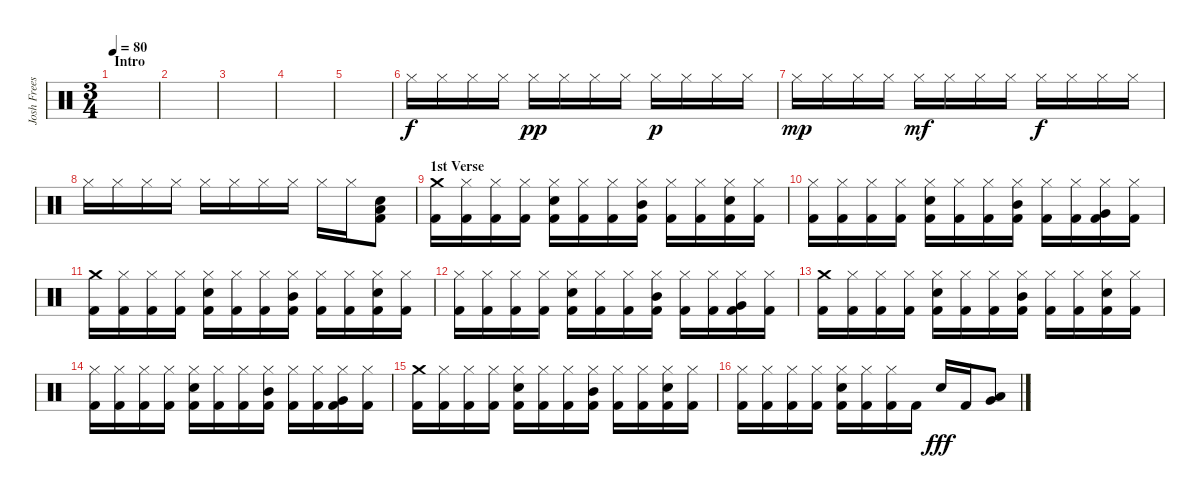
\track ("Josh Freese" "Josh Frees") {instrument percussion}
\staff {score}
\articulation defaults
\ts (3 4)
\section ("" "Intro")
\tempo 80
\clef neutral
\ks c
|
|
|
|
|
"Hi-Hat (closed)".16 "Hi-Hat (closed)".16 "Hi-Hat (closed)".16 "Hi-Hat (closed)".16 "Hi-Hat (closed)".16{dy pp} "Hi-Hat (closed)".16 "Hi-Hat (closed)".16 "Hi-Hat (closed)".16 "Hi-Hat (closed)".16{dy p} "Hi-Hat (closed)".16 "Hi-Hat (closed)".16 "Hi-Hat (closed)".16 |
"Hi-Hat (closed)".16{dy mp} "Hi-Hat (closed)".16 "Hi-Hat (closed)".16 "Hi-Hat (closed)".16 "Hi-Hat (closed)".16{dy mf} "Hi-Hat (closed)".16 "Hi-Hat (closed)".16 "Hi-Hat (closed)".16 "Hi-Hat (closed)".16{dy f} "Hi-Hat (closed)".16 "Hi-Hat (closed)".16 "Hi-Hat (closed)".16 |
"Hi-Hat (closed)".16 "Hi-Hat (closed)".16 "Hi-Hat (closed)".16 "Hi-Hat (closed)".16 "Hi-Hat (closed)".16 "Hi-Hat (closed)".16 "Hi-Hat (closed)".16 "Hi-Hat (closed)".16 "Hi-Hat (closed)".16 "Hi-Hat (closed)".16 ("Electric Snare (hit)" "Low Floor Tom (hit)" "Kick (hit) 2").8 |
\section ("" "1st Verse")
("Crash medium (hit)" "Kick (hit) 2").16 ("Hi-Hat (closed)" "Kick (hit) 2").16 ("Hi-Hat (closed)" "Kick (hit) 2").16 ("Hi-Hat (closed)" "Kick (hit) 2").16 ("Hi-Hat (closed)" "Electric Snare (hit)" "Kick (hit) 2").16 ("Hi-Hat (closed)" "Kick (hit) 2").16 ("Hi-Hat (closed)" "Kick (hit) 2").16 ("Hi-Hat (closed)" "Mid Tom (hit)" "Kick (hit) 2").16 ("Hi-Hat (closed)" "Kick (hit) 2").16 ("Hi-Hat (closed)" "Kick (hit) 2").16 ("Hi-Hat (closed)" "Electric Snare (hit)" "Kick (hit) 2").16 ("Hi-Hat (closed)" "Kick (hit) 2").16 |
("Hi-Hat (closed)" "Kick (hit) 2").16 ("Hi-Hat (closed)" "Kick (hit) 2").16 ("Hi-Hat (closed)" "Kick (hit) 2").16 ("Hi-Hat (closed)" "Kick (hit) 2").16 ("Hi-Hat (closed)" "Electric Snare (hit)" "Kick (hit) 2").16 ("Hi-Hat (closed)" "Kick (hit) 2").16 ("Hi-Hat (closed)" "Kick (hit) 2").16 ("Hi-Hat (closed)" "Mid Tom (hit)" "Kick (hit) 2").16 ("Hi-Hat (closed)" "Kick (hit) 2").16 ("Hi-Hat (closed)" "Kick (hit) 2").16 ("Hi-Hat (closed)" "Very Low Tom (hit)" "Kick (hit) 2").16 ("Hi-Hat (closed)" "Kick (hit) 2").16 |
("Crash medium (hit)" "Kick (hit) 2").16 ("Hi-Hat (closed)" "Kick (hit) 2").16 ("Hi-Hat (closed)" "Kick (hit) 2").16 ("Hi-Hat (closed)" "Kick (hit) 2").16 ("Hi-Hat (closed)" "Electric Snare (hit)" "Kick (hit) 2").16 ("Hi-Hat (closed)" "Kick (hit) 2").16 ("Hi-Hat (closed)" "Kick (hit) 2").16 ("Hi-Hat (closed)" "Mid Tom (hit)" "Kick (hit) 2").16 ("Hi-Hat (closed)" "Kick (hit) 2").16 ("Hi-Hat (closed)" "Kick (hit) 2").16 ("Hi-Hat (closed)" "Electric Snare (hit)" "Kick (hit) 2").16 ("Hi-Hat (closed)" "Kick (hit) 2").16 |
("Hi-Hat (closed)" "Kick (hit) 2").16 ("Hi-Hat (closed)" "Kick (hit) 2").16 ("Hi-Hat (closed)" "Kick (hit) 2").16 ("Hi-Hat (closed)" "Kick (hit) 2").16 ("Hi-Hat (closed)" "Electric Snare (hit)" "Kick (hit) 2").16 ("Hi-Hat (closed)" "Kick (hit) 2").16 ("Hi-Hat (closed)" "Kick (hit) 2").16 ("Hi-Hat (closed)" "Mid Tom (hit)" "Kick (hit) 2").16 ("Hi-Hat (closed)" "Kick (hit) 2").16 ("Hi-Hat (closed)" "Kick (hit) 2").16 ("Hi-Hat (closed)" "Very Low Tom (hit)" "Kick (hit) 2").16 ("Hi-Hat (closed)" "Kick (hit) 2").16 |
("Crash medium (hit)" "Kick (hit) 2").16 ("Hi-Hat (closed)" "Kick (hit) 2").16 ("Hi-Hat (closed)" "Kick (hit) 2").16 ("Hi-Hat (closed)" "Kick (hit) 2").16 ("Hi-Hat (closed)" "Electric Snare (hit)" "Kick (hit) 2").16 ("Hi-Hat (closed)" "Kick (hit) 2").16 ("Hi-Hat (closed)" "Kick (hit) 2").16 ("Hi-Hat (closed)" "Mid Tom (hit)" "Kick (hit) 2").16 ("Hi-Hat (closed)" "Kick (hit) 2").16 ("Hi-Hat (closed)" "Kick (hit) 2").16 ("Hi-Hat (closed)" "Electric Snare (hit)" "Kick (hit) 2").16 ("Hi-Hat (closed)" "Kick (hit) 2").16 |
("Hi-Hat (closed)" "Kick (hit) 2").16 ("Hi-Hat (closed)" "Kick (hit) 2").16 ("Hi-Hat (closed)" "Kick (hit) 2").16 ("Hi-Hat (closed)" "Kick (hit) 2").16 ("Hi-Hat (closed)" "Electric Snare (hit)" "Kick (hit) 2").16 ("Hi-Hat (closed)" "Kick (hit) 2").16 ("Hi-Hat (closed)" "Kick (hit) 2").16 ("Hi-Hat (closed)" "Mid Tom (hit)" "Kick (hit) 2").16 ("Hi-Hat (closed)" "Kick (hit) 2").16 ("Hi-Hat (closed)" "Kick (hit) 2").16 ("Hi-Hat (closed)" "Very Low Tom (hit)" "Kick (hit) 2").16 ("Hi-Hat (closed)" "Kick (hit) 2").16 |
("Crash medium (hit)" "Kick (hit) 2").16 ("Hi-Hat (closed)" "Kick (hit) 2").16 ("Hi-Hat (closed)" "Kick (hit) 2").16 ("Hi-Hat (closed)" "Kick (hit) 2").16 ("Hi-Hat (closed)" "Electric Snare (hit)" "Kick (hit) 2").16 ("Hi-Hat (closed)" "Kick (hit) 2").16 ("Hi-Hat (closed)" "Kick (hit) 2").16 ("Hi-Hat (closed)" "Mid Tom (hit)" "Kick (hit) 2").16 ("Hi-Hat (closed)" "Kick (hit) 2").16 ("Hi-Hat (closed)" "Kick (hit) 2").16 ("Hi-Hat (closed)" "Electric Snare (hit)" "Kick (hit) 2").16 ("Hi-Hat (closed)" "Kick (hit) 2").16 |
("Hi-Hat (closed)" "Kick (hit) 2").16 ("Hi-Hat (closed)" "Kick (hit) 2").16 ("Hi-Hat (closed)" "Kick (hit) 2").16 ("Hi-Hat (closed)" "Kick (hit) 2").16 ("Hi-Hat (closed)" "Electric Snare (hit)" "Kick (hit) 2").16 ("Hi-Hat (closed)" "Kick (hit) 2").16 ("Hi-Hat (closed)" "Kick (hit) 2").16 "Kick (hit) 2".16 "Electric Snare (hit)".16{dy fff} "Kick (hit) 2".16 ("Very Low Tom (hit)" "Low Floor Tom (hit)").8
